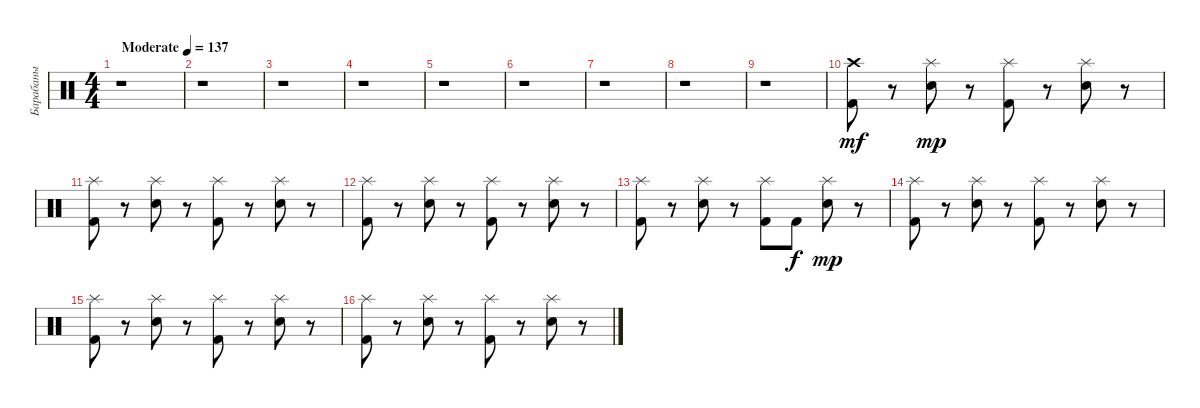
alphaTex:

\track ("Барабаны" "Барабаны") {instrument percussion}
\staff {score}
\articulation defaults
\ts (4 4)
\tempo (137 "Moderate")
\clef neutral
\ks c
r.1{dy mf} |
r.1 |
r.1 |
r.1 |
r.1 |
r.1 |
r.1 |
r.1 |
r.1 |
("Crash high (hit)" "Kick (hit) 2").8 r.8 ("Splash (hit)" "Electric Snare (hit)").8{dy mp} r.8 ("Splash (hit)" "Kick (hit) 2").8 r.8 ("Splash (hit)" "Electric Snare (hit)").8 r.8 |
("Splash (hit)" "Kick (hit) 2").8 r.8 ("Splash (hit)" "Electric Snare (hit)").8 r.8 ("Splash (hit)" "Kick (hit) 2").8 r.8 ("Splash (hit)" "Electric Snare (hit)").8 r.8 |
("Splash (hit)" "Kick (hit) 2").8 r.8 ("Splash (hit)" "Electric Snare (hit)").8 r.8 ("Splash (hit)" "Kick (hit) 2").8 r.8 ("Splash (hit)" "Electric Snare (hit)").8 r.8 |
("Splash (hit)" "Kick (hit) 2").8 r.8 ("Splash (hit)" "Electric Snare (hit)").8 r.8 ("Splash (hit)" "Kick (hit) 2").8 "Kick (hit) 2".8{dy f} ("Splash (hit)" "Electric Snare (hit)").8{dy mp} r.8 |
("Splash (hit)" "Kick (hit) 2").8 r.8 ("Splash (hit)" "Electric Snare (hit)").8 r.8 ("Splash (hit)" "Kick (hit) 2").8 r.8 ("Splash (hit)" "Electric Snare (hit)").8 r.8 |
("Splash (hit)" "Kick (hit) 2").8 r.8 ("Splash (hit)" "Electric Snare (hit)").8 r.8 ("Splash (hit)" "Kick (hit) 2").8 r.8 ("Splash (hit)" "Electric Snare (hit)").8 r.8 |
("Splash (hit)" "Kick (hit) 2").8 r.8 ("Splash (hit)" "Electric Snare (hit)").8 r.8 ("Splash (hit)" "Kick (hit) 2").8 r.8 ("Splash (hit)" "Electric Snare (hit)").8 r.8
